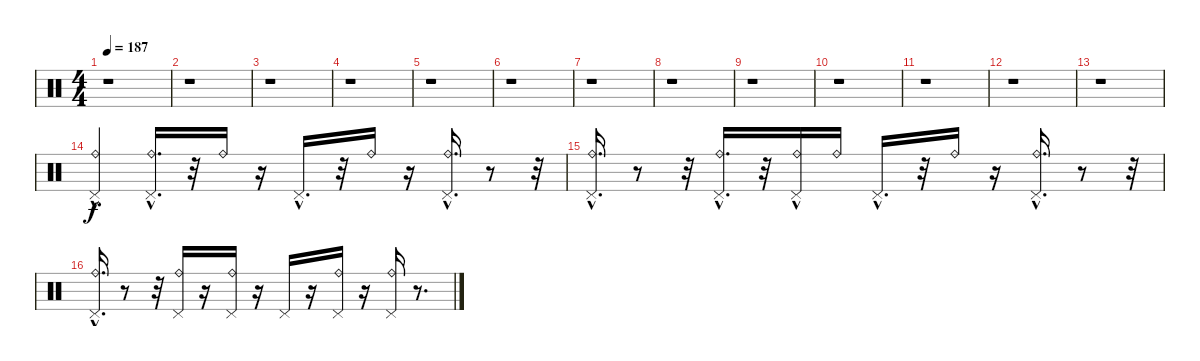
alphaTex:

\track "" {instrument percussion}
\staff {score}
\articulation defaults
\ts (4 4)
\tempo 187
\clef neutral
\ks c
r.1{dy f} |
r.1 |
r.1 |
r.1 |
r.1 |
r.1 |
r.1 |
r.1 |
r.1 |
r.1 |
r.1 |
r.1 |
r.1 |
("Pedal Hi-Hat (hit)"{hac} "Ride (bell)").4 ("Pedal Hi-Hat (hit)"{hac} "Ride (bell)").16{d} r.32 "Ride (bell)".16 r.16 "Pedal Hi-Hat (hit)"{hac}.16{d} r.32 "Ride (bell)".16 r.16 ("Pedal Hi-Hat (hit)"{hac} "Ride (bell)"{hac}).16{d} r.8 r.32 |
("Pedal Hi-Hat (hit)"{hac} "Ride (bell)").16{d} r.8 r.32 ("Pedal Hi-Hat (hit)"{hac} "Ride (bell)").16{d} r.32 ("Pedal Hi-Hat (hit)"{hac} "Ride (bell)").16 "Ride (bell)".16 "Pedal Hi-Hat (hit)"{hac}.16{d} r.32 "Ride (bell)".16 r.16 ("Pedal Hi-Hat (hit)"{hac} "Ride (bell)"{hac}).16{d} r.8 r.32 |
("Pedal Hi-Hat (hit)"{hac} "Ride (bell)").16{d} r.8 r.32 ("Ride (bell)" "Pedal Hi-Hat (hit)").16 r.16 ("Pedal Hi-Hat (hit)" "Ride (bell)").16 r.16 "Pedal Hi-Hat (hit)".16 r.16 ("Pedal Hi-Hat (hit)" "Ride (bell)").16 r.16 ("Pedal Hi-Hat (hit)" "Ride (bell)").16 r.8{d}
